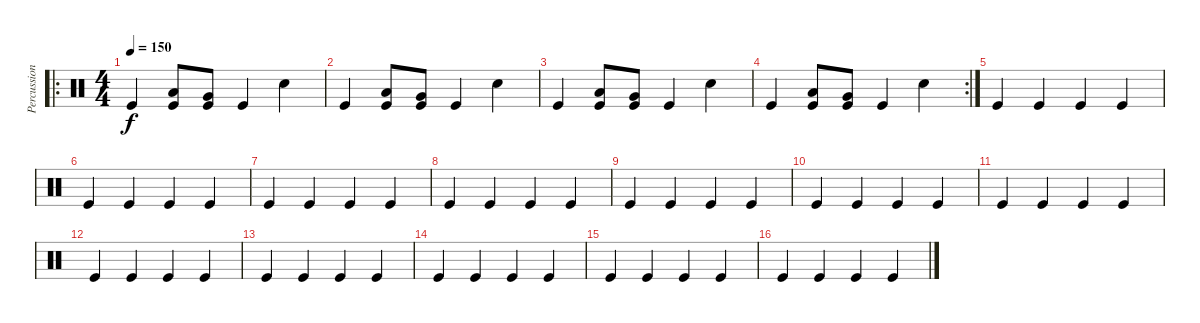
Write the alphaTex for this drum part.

\track ("Percussion" "Percussion") {instrument percussion}
\staff {score}
\articulation defaults
\ro
\ts (4 4)
\tempo 150
\clef neutral
\ks c "Kick (hit)".4{dy f}
("Kick (hit)" "Low Tom (hit)").8 ("Kick (hit)" "Very Low Tom (hit)").8 "Kick (hit)".4 "Snare (hit) 2".4 |
"Kick (hit)".4 ("Kick (hit)" "Low Tom (hit)").8 ("Kick (hit)" "Very Low Tom (hit)").8 "Kick (hit)".4 "Snare (hit) 2".4 |
"Kick (hit)".4 ("Kick (hit)" "Low Tom (hit)").8 ("Kick (hit)" "Very Low Tom (hit)").8 "Kick (hit)".4 "Snare (hit) 2".4 |
\rc 2 "Kick (hit)".4
("Kick (hit)" "Low Tom (hit)").8 ("Kick (hit)" "Very Low Tom (hit)").8 "Kick (hit)".4 "Snare (hit) 2".4 |
"Kick (hit)".4 "Kick (hit)".4 "Kick (hit)".4 "Kick (hit)".4 |
"Kick (hit)".4 "Kick (hit)".4 "Kick (hit)".4 "Kick (hit)".4 |
"Kick (hit)".4 "Kick (hit)".4 "Kick (hit)".4 "Kick (hit)".4 |
"Kick (hit)".4 "Kick (hit)".4 "Kick (hit)".4 "Kick (hit)".4 |
"Kick (hit)".4 "Kick (hit)".4 "Kick (hit)".4 "Kick (hit)".4 |
"Kick (hit)".4 "Kick (hit)".4 "Kick (hit)".4 "Kick (hit)".4 |
"Kick (hit)".4 "Kick (hit)".4 "Kick (hit)".4 "Kick (hit)".4 |
"Kick (hit)".4 "Kick (hit)".4 "Kick (hit)".4 "Kick (hit)".4 |
"Kick (hit)".4 "Kick (hit)".4 "Kick (hit)".4 "Kick (hit)".4 |
"Kick (hit)".4 "Kick (hit)".4 "Kick (hit)".4 "Kick (hit)".4 |
"Kick (hit)".4 "Kick (hit)".4 "Kick (hit)".4 "Kick (hit)".4 |
"Kick (hit)".4 "Kick (hit)".4 "Kick (hit)".4 "Kick (hit)".4
